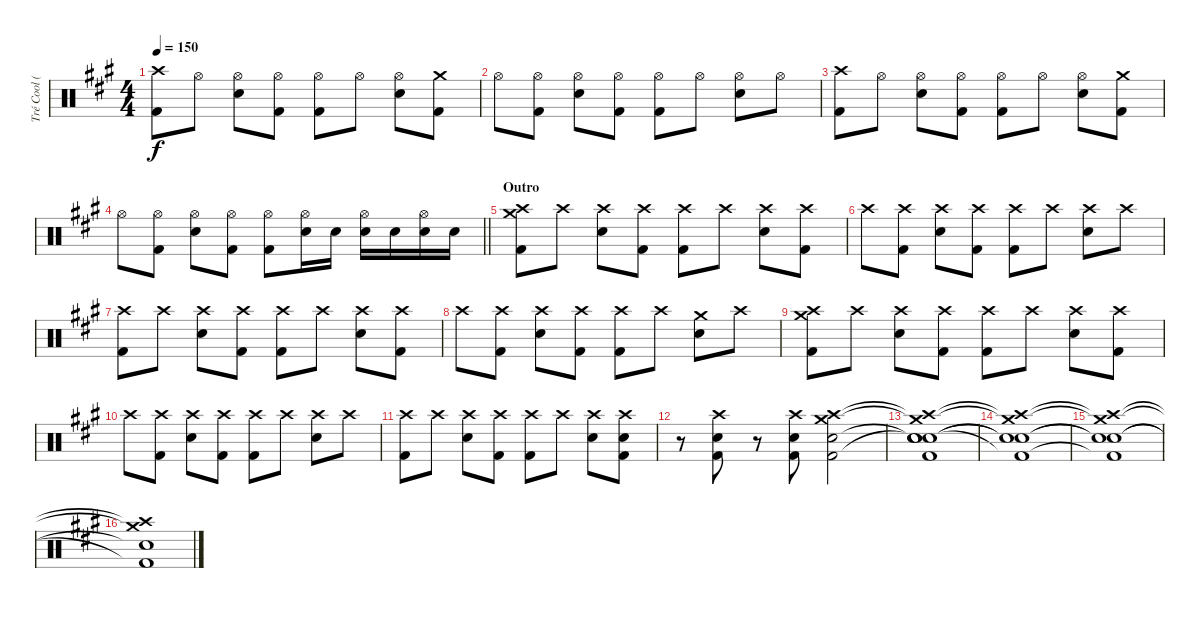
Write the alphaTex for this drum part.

\track ("Tré Cool (Drums)" "Tré Cool (") {instrument percussion}
\staff {score}
\articulation defaults
\ts (4 4)
\tempo 150
\clef neutral
\ks a
("Crash high (hit)" "Kick (hit) 2").8{dy f} "Hi-Hat (open)".8 ("Hi-Hat (open)" "Snare (hit) 2").8 ("Hi-Hat (open)" "Kick (hit) 2").8 ("Hi-Hat (open)" "Kick (hit) 2").8 "Hi-Hat (open)".8 ("Hi-Hat (open)" "Snare (hit) 2").8 ("Crash medium (hit)" "Kick (hit) 2").8 |
"Hi-Hat (open)".8 ("Hi-Hat (open)" "Kick (hit) 2").8 ("Hi-Hat (open)" "Snare (hit) 2").8 ("Hi-Hat (open)" "Kick (hit) 2").8 ("Hi-Hat (open)" "Kick (hit) 2").8 "Hi-Hat (open)".8 ("Hi-Hat (open)" "Snare (hit) 2").8 "Hi-Hat (open)".8 |
("Crash high (hit)" "Kick (hit) 2").8 "Hi-Hat (open)".8 ("Hi-Hat (open)" "Snare (hit) 2").8 ("Hi-Hat (open)" "Kick (hit) 2").8 ("Hi-Hat (open)" "Kick (hit) 2").8 "Hi-Hat (open)".8 ("Hi-Hat (open)" "Snare (hit) 2").8 ("Crash medium (hit)" "Kick (hit) 2").8 |
\barLineRight lightlight "Hi-Hat (open)".8
("Hi-Hat (open)" "Kick (hit) 2").8 ("Hi-Hat (open)" "Snare (hit) 2").8 ("Hi-Hat (open)" "Kick (hit) 2").8 ("Hi-Hat (open)" "Kick (hit) 2").8 ("Hi-Hat (open)" "Snare (hit) 2").16 "Snare (hit) 2".16 ("Hi-Hat (open)" "Snare (hit) 2").16 "Snare (hit) 2".16 ("Hi-Hat (open)" "Snare (hit) 2").16 "Snare (hit) 2".16 |
\section ("" "Outro")
("Crash high (hit)" "Crash medium (hit)" "Kick (hit) 2").8 "Crash high (hit)".8 ("Crash high (hit)" "Snare (hit) 2").8 ("Crash high (hit)" "Kick (hit) 2").8 ("Crash high (hit)" "Kick (hit) 2").8 "Crash high (hit)".8 ("Crash high (hit)" "Snare (hit) 2").8 ("Crash high (hit)" "Kick (hit) 2").8 |
"Crash high (hit)".8 ("Crash high (hit)" "Kick (hit) 2").8 ("Crash high (hit)" "Snare (hit) 2").8 ("Crash high (hit)" "Kick (hit) 2").8 ("Crash high (hit)" "Kick (hit) 2").8 "Crash high (hit)".8 ("Crash high (hit)" "Snare (hit) 2").8 "Crash high (hit)".8 |
("Crash high (hit)" "Kick (hit) 2").8 "Crash high (hit)".8 ("Crash high (hit)" "Snare (hit) 2").8 ("Crash high (hit)" "Kick (hit) 2").8 ("Crash high (hit)" "Kick (hit) 2").8 "Crash high (hit)".8 ("Crash high (hit)" "Snare (hit) 2").8 ("Crash high (hit)" "Kick (hit) 2").8 |
"Crash high (hit)".8 ("Crash high (hit)" "Kick (hit) 2").8 ("Crash high (hit)" "Snare (hit) 2").8 ("Crash high (hit)" "Kick (hit) 2").8 ("Crash high (hit)" "Kick (hit) 2").8 "Crash high (hit)".8 ("Crash medium (hit)" "Snare (hit) 2").8 "Crash high (hit)".8 |
("Crash high (hit)" "Crash medium (hit)" "Kick (hit) 2").8 "Crash high (hit)".8 ("Crash high (hit)" "Snare (hit) 2").8 ("Crash high (hit)" "Kick (hit) 2").8 ("Crash high (hit)" "Kick (hit) 2").8 "Crash high (hit)".8 ("Crash high (hit)" "Snare (hit) 2").8 ("Crash high (hit)" "Kick (hit) 2").8 |
"Crash high (hit)".8 ("Crash high (hit)" "Kick (hit) 2").8 ("Crash high (hit)" "Snare (hit) 2").8 ("Crash high (hit)" "Kick (hit) 2").8 ("Crash high (hit)" "Kick (hit) 2").8 "Crash high (hit)".8 ("Crash high (hit)" "Snare (hit) 2").8 "Crash high (hit)".8 |
("Crash high (hit)" "Kick (hit) 2").8 "Crash high (hit)".8 ("Crash high (hit)" "Snare (hit) 2").8 ("Crash high (hit)" "Kick (hit) 2").8 ("Crash high (hit)" "Kick (hit) 2").8 "Crash high (hit)".8 ("Crash high (hit)" "Snare (hit) 2").8 ("Crash high (hit)" "Snare (hit) 2" "Kick (hit) 2").8 |
r.8 ("Crash high (hit)" "Snare (hit) 2" "Kick (hit) 2").8 r.8 ("Crash high (hit)" "Snare (hit) 2" "Kick (hit) 2").8 ("Crash high (hit)" "Crash medium (hit)" "Snare (hit) 2" "Kick (hit) 2").2 |
("Crash high (hit)"{t} "Crash medium (hit)"{t} "Snare (hit)"{t} "Snare (hit) 2"{t} "Snare (hit)" "Kick (hit) 2").1 |
("Crash high (hit)"{t} "Crash medium (hit)"{t} "Snare (hit)"{t} "Snare (hit) 2"{t} "Kick (hit) 2"{t}).1 |
("Crash high (hit)"{t} "Crash medium (hit)"{t} "Snare (hit) 2"{t} "Snare (hit)"{t} "Kick (hit) 2"{t}).1 |
("Crash high (hit)"{t} "Crash medium (hit)"{t} "Snare (hit) 2"{t} "Kick (hit) 2"{t}).1
